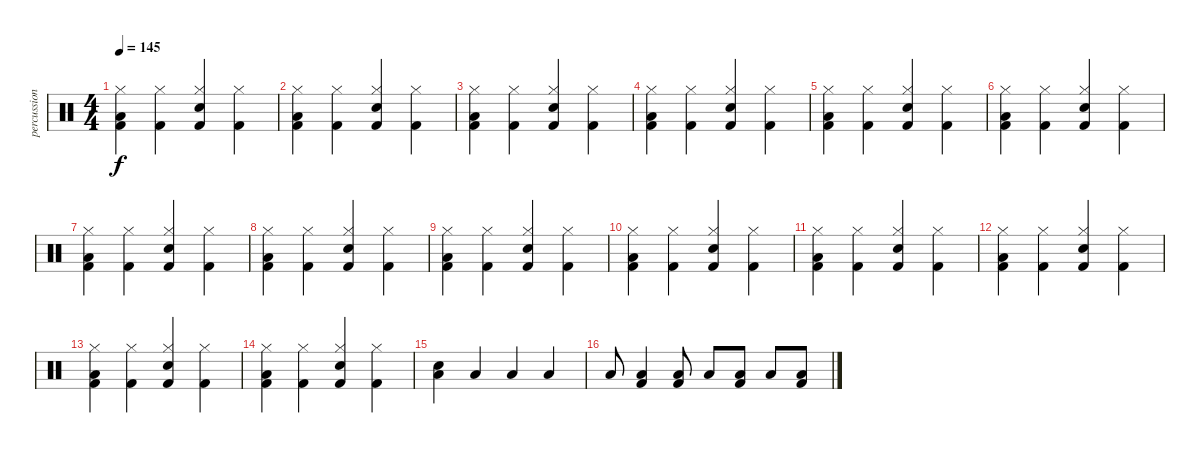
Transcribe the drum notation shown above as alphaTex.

\track ("percussion" "percussion") {instrument percussion}
\staff {score}
\articulation defaults
\ts (4 4)
\tempo 145
\clef neutral
\ks c
("Kick (hit) 2" "Low Tom (hit)" "Hi-Hat (closed)").4{dy f} ("Kick (hit) 2" "Hi-Hat (closed)").4 ("Snare (hit) 2" "Kick (hit) 2" "Hi-Hat (closed)").4 ("Kick (hit) 2" "Hi-Hat (closed)").4 |
("Kick (hit) 2" "Low Tom (hit)" "Hi-Hat (closed)").4 ("Kick (hit) 2" "Hi-Hat (closed)").4 ("Snare (hit) 2" "Kick (hit) 2" "Hi-Hat (closed)").4 ("Kick (hit) 2" "Hi-Hat (closed)").4 |
("Kick (hit) 2" "Low Tom (hit)" "Hi-Hat (closed)").4 ("Kick (hit) 2" "Hi-Hat (closed)").4 ("Snare (hit) 2" "Kick (hit) 2" "Hi-Hat (closed)").4 ("Kick (hit) 2" "Hi-Hat (closed)").4 |
("Kick (hit) 2" "Low Tom (hit)" "Hi-Hat (closed)").4 ("Kick (hit) 2" "Hi-Hat (closed)").4 ("Snare (hit) 2" "Kick (hit) 2" "Hi-Hat (closed)").4 ("Kick (hit) 2" "Hi-Hat (closed)").4 |
("Kick (hit) 2" "Low Tom (hit)" "Hi-Hat (closed)").4 ("Kick (hit) 2" "Hi-Hat (closed)").4 ("Snare (hit) 2" "Kick (hit) 2" "Hi-Hat (closed)").4 ("Kick (hit) 2" "Hi-Hat (closed)").4 |
("Kick (hit) 2" "Low Tom (hit)" "Hi-Hat (closed)").4 ("Kick (hit) 2" "Hi-Hat (closed)").4 ("Snare (hit) 2" "Kick (hit) 2" "Hi-Hat (closed)").4 ("Kick (hit) 2" "Hi-Hat (closed)").4 |
("Kick (hit) 2" "Low Tom (hit)" "Hi-Hat (closed)").4 ("Kick (hit) 2" "Hi-Hat (closed)").4 ("Snare (hit) 2" "Kick (hit) 2" "Hi-Hat (closed)").4 ("Kick (hit) 2" "Hi-Hat (closed)").4 |
("Kick (hit) 2" "Low Tom (hit)" "Hi-Hat (closed)").4 ("Kick (hit) 2" "Hi-Hat (closed)").4 ("Snare (hit) 2" "Kick (hit) 2" "Hi-Hat (closed)").4 ("Kick (hit) 2" "Hi-Hat (closed)").4 |
("Kick (hit) 2" "Low Tom (hit)" "Hi-Hat (closed)").4 ("Kick (hit) 2" "Hi-Hat (closed)").4 ("Snare (hit) 2" "Kick (hit) 2" "Hi-Hat (closed)").4 ("Kick (hit) 2" "Hi-Hat (closed)").4 |
("Kick (hit) 2" "Low Tom (hit)" "Hi-Hat (closed)").4 ("Kick (hit) 2" "Hi-Hat (closed)").4 ("Snare (hit) 2" "Kick (hit) 2" "Hi-Hat (closed)").4 ("Kick (hit) 2" "Hi-Hat (closed)").4 |
("Kick (hit) 2" "Low Tom (hit)" "Hi-Hat (closed)").4 ("Kick (hit) 2" "Hi-Hat (closed)").4 ("Snare (hit) 2" "Kick (hit) 2" "Hi-Hat (closed)").4 ("Kick (hit) 2" "Hi-Hat (closed)").4 |
("Kick (hit) 2" "Low Tom (hit)" "Hi-Hat (closed)").4 ("Kick (hit) 2" "Hi-Hat (closed)").4 ("Snare (hit) 2" "Kick (hit) 2" "Hi-Hat (closed)").4 ("Kick (hit) 2" "Hi-Hat (closed)").4 |
("Kick (hit) 2" "Low Tom (hit)" "Hi-Hat (closed)").4 ("Kick (hit) 2" "Hi-Hat (closed)").4 ("Snare (hit) 2" "Kick (hit) 2" "Hi-Hat (closed)").4 ("Kick (hit) 2" "Hi-Hat (closed)").4 |
("Kick (hit) 2" "Low Tom (hit)" "Hi-Hat (closed)").4 ("Kick (hit) 2" "Hi-Hat (closed)").4 ("Snare (hit) 2" "Kick (hit) 2" "Hi-Hat (closed)").4 ("Kick (hit) 2" "Hi-Hat (closed)").4 |
("Electric Snare (hit)" "Low Tom (hit)").4 "Low Tom (hit)".4 "Low Tom (hit)".4 "Low Tom (hit)".4 |
"Low Tom (hit)".8 ("Low Floor Tom (hit)" "Kick (hit) 2").4 ("Low Floor Tom (hit)" "Kick (hit) 2").8 "Low Tom (hit)".8 ("Low Floor Tom (hit)" "Kick (hit) 2").8 "Low Tom (hit)".8 ("Low Floor Tom (hit)" "Kick (hit) 2").8
